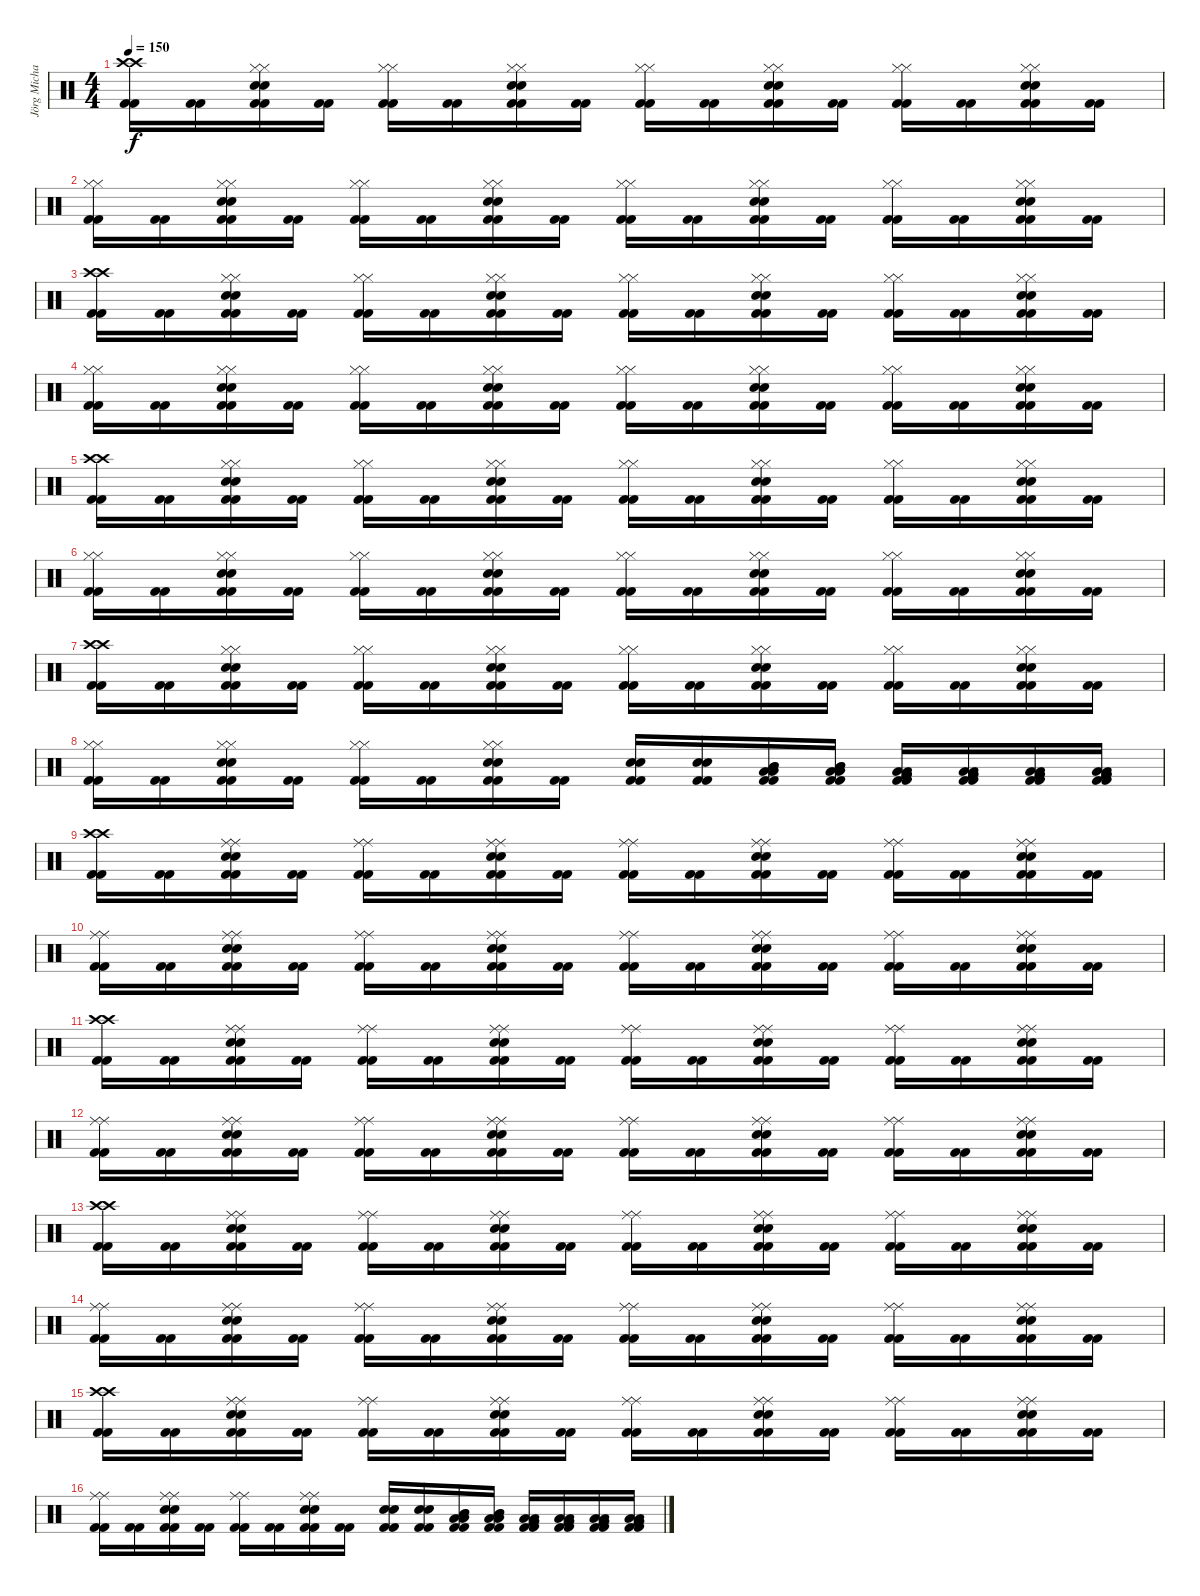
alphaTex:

\track ("Jörg Michael" "Jörg Micha") {instrument percussion}
\staff {score}
\articulation defaults
\ts (4 4)
\tempo 150
\clef neutral
\ks c
("Kick (hit) 2" "Crash high (hit)" "Kick (hit) 2" "Crash high (hit)").16{dy f} ("Kick (hit) 2" "Kick (hit) 2").16 ("Kick (hit) 2" "Snare (hit) 2" "Hi-Hat (closed)" "Kick (hit) 2" "Snare (hit) 2" "Hi-Hat (closed)").16 ("Kick (hit) 2" "Kick (hit) 2").16 ("Kick (hit) 2" "Hi-Hat (closed)" "Kick (hit) 2" "Hi-Hat (closed)").16 ("Kick (hit) 2" "Kick (hit) 2").16 ("Kick (hit) 2" "Snare (hit) 2" "Hi-Hat (closed)" "Kick (hit) 2" "Snare (hit) 2" "Hi-Hat (closed)").16 ("Kick (hit) 2" "Kick (hit) 2").16 ("Kick (hit) 2" "Hi-Hat (closed)" "Kick (hit) 2" "Hi-Hat (closed)").16 ("Kick (hit) 2" "Kick (hit) 2").16 ("Kick (hit) 2" "Snare (hit) 2" "Hi-Hat (closed)" "Kick (hit) 2" "Snare (hit) 2" "Hi-Hat (closed)").16 ("Kick (hit) 2" "Kick (hit) 2").16 ("Kick (hit) 2" "Hi-Hat (closed)" "Kick (hit) 2" "Hi-Hat (closed)").16 ("Kick (hit) 2" "Kick (hit) 2").16 ("Kick (hit) 2" "Snare (hit) 2" "Hi-Hat (closed)" "Kick (hit) 2" "Snare (hit) 2" "Hi-Hat (closed)").16 ("Kick (hit) 2" "Kick (hit) 2").16 |
("Kick (hit) 2" "Hi-Hat (closed)" "Kick (hit) 2" "Hi-Hat (closed)").16 ("Kick (hit) 2" "Kick (hit) 2").16 ("Kick (hit) 2" "Hi-Hat (closed)" "Snare (hit) 2" "Kick (hit) 2" "Hi-Hat (closed)" "Snare (hit) 2").16 ("Kick (hit) 2" "Kick (hit) 2").16 ("Kick (hit) 2" "Hi-Hat (closed)" "Kick (hit) 2" "Hi-Hat (closed)").16 ("Kick (hit) 2" "Kick (hit) 2").16 ("Kick (hit) 2" "Snare (hit) 2" "Hi-Hat (closed)" "Kick (hit) 2" "Snare (hit) 2" "Hi-Hat (closed)").16 ("Kick (hit) 2" "Kick (hit) 2").16 ("Kick (hit) 2" "Hi-Hat (closed)" "Kick (hit) 2" "Hi-Hat (closed)").16 ("Kick (hit) 2" "Kick (hit) 2").16 ("Kick (hit) 2" "Snare (hit) 2" "Hi-Hat (closed)" "Kick (hit) 2" "Snare (hit) 2" "Hi-Hat (closed)").16 ("Kick (hit) 2" "Kick (hit) 2").16 ("Kick (hit) 2" "Hi-Hat (closed)" "Kick (hit) 2" "Hi-Hat (closed)").16 ("Kick (hit) 2" "Kick (hit) 2").16 ("Kick (hit) 2" "Snare (hit) 2" "Hi-Hat (closed)" "Kick (hit) 2" "Snare (hit) 2" "Hi-Hat (closed)").16 ("Kick (hit) 2" "Kick (hit) 2").16 |
("Kick (hit) 2" "Crash high (hit)" "Kick (hit) 2" "Crash high (hit)").16 ("Kick (hit) 2" "Kick (hit) 2").16 ("Kick (hit) 2" "Snare (hit) 2" "Hi-Hat (closed)" "Kick (hit) 2" "Snare (hit) 2" "Hi-Hat (closed)").16 ("Kick (hit) 2" "Kick (hit) 2").16 ("Kick (hit) 2" "Hi-Hat (closed)" "Kick (hit) 2" "Hi-Hat (closed)").16 ("Kick (hit) 2" "Kick (hit) 2").16 ("Kick (hit) 2" "Hi-Hat (closed)" "Snare (hit) 2" "Kick (hit) 2" "Hi-Hat (closed)" "Snare (hit) 2").16 ("Kick (hit) 2" "Kick (hit) 2").16 ("Kick (hit) 2" "Hi-Hat (closed)" "Kick (hit) 2" "Hi-Hat (closed)").16 ("Kick (hit) 2" "Kick (hit) 2").16 ("Kick (hit) 2" "Hi-Hat (closed)" "Snare (hit) 2" "Kick (hit) 2" "Hi-Hat (closed)" "Snare (hit) 2").16 ("Kick (hit) 2" "Kick (hit) 2").16 ("Kick (hit) 2" "Hi-Hat (closed)" "Kick (hit) 2" "Hi-Hat (closed)").16 ("Kick (hit) 2" "Kick (hit) 2").16 ("Kick (hit) 2" "Hi-Hat (closed)" "Snare (hit) 2" "Kick (hit) 2" "Hi-Hat (closed)" "Snare (hit) 2").16 ("Kick (hit) 2" "Kick (hit) 2").16 |
("Kick (hit) 2" "Hi-Hat (closed)" "Kick (hit) 2" "Hi-Hat (closed)").16 ("Kick (hit) 2" "Kick (hit) 2").16 ("Kick (hit) 2" "Snare (hit) 2" "Hi-Hat (closed)" "Kick (hit) 2" "Snare (hit) 2" "Hi-Hat (closed)").16 ("Kick (hit) 2" "Kick (hit) 2").16 ("Kick (hit) 2" "Hi-Hat (closed)" "Kick (hit) 2" "Hi-Hat (closed)").16 ("Kick (hit) 2" "Kick (hit) 2").16 ("Kick (hit) 2" "Hi-Hat (closed)" "Snare (hit) 2" "Kick (hit) 2" "Hi-Hat (closed)" "Snare (hit) 2").16 ("Kick (hit) 2" "Kick (hit) 2").16 ("Kick (hit) 2" "Hi-Hat (closed)" "Kick (hit) 2" "Hi-Hat (closed)").16 ("Kick (hit) 2" "Kick (hit) 2").16 ("Kick (hit) 2" "Snare (hit) 2" "Hi-Hat (closed)" "Kick (hit) 2" "Snare (hit) 2" "Hi-Hat (closed)").16 ("Kick (hit) 2" "Kick (hit) 2").16 ("Kick (hit) 2" "Hi-Hat (closed)" "Kick (hit) 2" "Hi-Hat (closed)").16 ("Kick (hit) 2" "Kick (hit) 2").16 ("Kick (hit) 2" "Snare (hit) 2" "Hi-Hat (closed)" "Kick (hit) 2" "Snare (hit) 2" "Hi-Hat (closed)").16 ("Kick (hit) 2" "Kick (hit) 2").16 |
("Kick (hit) 2" "Crash high (hit)" "Kick (hit) 2" "Crash high (hit)").16 ("Kick (hit) 2" "Kick (hit) 2").16 ("Kick (hit) 2" "Hi-Hat (closed)" "Snare (hit) 2" "Kick (hit) 2" "Hi-Hat (closed)" "Snare (hit) 2").16 ("Kick (hit) 2" "Kick (hit) 2").16 ("Kick (hit) 2" "Hi-Hat (closed)" "Kick (hit) 2" "Hi-Hat (closed)").16 ("Kick (hit) 2" "Kick (hit) 2").16 ("Kick (hit) 2" "Hi-Hat (closed)" "Snare (hit) 2" "Kick (hit) 2" "Hi-Hat (closed)" "Snare (hit) 2").16 ("Kick (hit) 2" "Kick (hit) 2").16 ("Kick (hit) 2" "Hi-Hat (closed)" "Kick (hit) 2" "Hi-Hat (closed)").16 ("Kick (hit) 2" "Kick (hit) 2").16 ("Kick (hit) 2" "Snare (hit) 2" "Hi-Hat (closed)" "Kick (hit) 2" "Snare (hit) 2" "Hi-Hat (closed)").16 ("Kick (hit) 2" "Kick (hit) 2").16 ("Kick (hit) 2" "Hi-Hat (closed)" "Kick (hit) 2" "Hi-Hat (closed)").16 ("Kick (hit) 2" "Kick (hit) 2").16 ("Kick (hit) 2" "Snare (hit) 2" "Hi-Hat (closed)" "Kick (hit) 2" "Snare (hit) 2" "Hi-Hat (closed)").16 ("Kick (hit) 2" "Kick (hit) 2").16 |
("Kick (hit) 2" "Hi-Hat (closed)" "Kick (hit) 2" "Hi-Hat (closed)").16 ("Kick (hit) 2" "Kick (hit) 2").16 ("Kick (hit) 2" "Hi-Hat (closed)" "Snare (hit) 2" "Kick (hit) 2" "Hi-Hat (closed)" "Snare (hit) 2").16 ("Kick (hit) 2" "Kick (hit) 2").16 ("Kick (hit) 2" "Hi-Hat (closed)" "Kick (hit) 2" "Hi-Hat (closed)").16 ("Kick (hit) 2" "Kick (hit) 2").16 ("Kick (hit) 2" "Hi-Hat (closed)" "Snare (hit) 2" "Kick (hit) 2" "Hi-Hat (closed)" "Snare (hit) 2").16 ("Kick (hit) 2" "Kick (hit) 2").16 ("Kick (hit) 2" "Hi-Hat (closed)" "Kick (hit) 2" "Hi-Hat (closed)").16 ("Kick (hit) 2" "Kick (hit) 2").16 ("Kick (hit) 2" "Snare (hit) 2" "Hi-Hat (closed)" "Kick (hit) 2" "Snare (hit) 2" "Hi-Hat (closed)").16 ("Kick (hit) 2" "Kick (hit) 2").16 ("Kick (hit) 2" "Hi-Hat (closed)" "Kick (hit) 2" "Hi-Hat (closed)").16 ("Kick (hit) 2" "Kick (hit) 2").16 ("Kick (hit) 2" "Snare (hit) 2" "Hi-Hat (closed)" "Kick (hit) 2" "Snare (hit) 2" "Hi-Hat (closed)").16 ("Kick (hit) 2" "Kick (hit) 2").16 |
("Kick (hit) 2" "Crash high (hit)" "Kick (hit) 2" "Crash high (hit)").16 ("Kick (hit) 2" "Kick (hit) 2").16 ("Kick (hit) 2" "Snare (hit) 2" "Hi-Hat (closed)" "Kick (hit) 2" "Snare (hit) 2" "Hi-Hat (closed)").16 ("Kick (hit) 2" "Kick (hit) 2").16 ("Kick (hit) 2" "Hi-Hat (closed)" "Kick (hit) 2" "Hi-Hat (closed)").16 ("Kick (hit) 2" "Kick (hit) 2").16 ("Kick (hit) 2" "Hi-Hat (closed)" "Snare (hit) 2" "Kick (hit) 2" "Hi-Hat (closed)" "Snare (hit) 2").16 ("Kick (hit) 2" "Kick (hit) 2").16 ("Kick (hit) 2" "Hi-Hat (closed)" "Kick (hit) 2" "Hi-Hat (closed)").16 ("Kick (hit) 2" "Kick (hit) 2").16 ("Kick (hit) 2" "Hi-Hat (closed)" "Snare (hit) 2" "Kick (hit) 2" "Hi-Hat (closed)" "Snare (hit) 2").16 ("Kick (hit) 2" "Kick (hit) 2").16 ("Kick (hit) 2" "Hi-Hat (closed)" "Kick (hit) 2" "Hi-Hat (closed)").16 ("Kick (hit) 2" "Kick (hit) 2").16 ("Kick (hit) 2" "Snare (hit) 2" "Hi-Hat (closed)" "Kick (hit) 2" "Snare (hit) 2" "Hi-Hat (closed)").16 ("Kick (hit) 2" "Kick (hit) 2").16 |
("Kick (hit) 2" "Hi-Hat (closed)" "Kick (hit) 2" "Hi-Hat (closed)").16 ("Kick (hit) 2" "Kick (hit) 2").16 ("Kick (hit) 2" "Snare (hit) 2" "Hi-Hat (closed)" "Kick (hit) 2" "Snare (hit) 2" "Hi-Hat (closed)").16 ("Kick (hit) 2" "Kick (hit) 2").16 ("Kick (hit) 2" "Hi-Hat (closed)" "Kick (hit) 2" "Hi-Hat (closed)").16 ("Kick (hit) 2" "Kick (hit) 2").16 ("Kick (hit) 2" "Snare (hit) 2" "Hi-Hat (closed)" "Kick (hit) 2" "Snare (hit) 2" "Hi-Hat (closed)").16 ("Kick (hit) 2" "Kick (hit) 2").16 ("Kick (hit) 2" "Snare (hit) 2" "Kick (hit) 2" "Snare (hit) 2").16 ("Kick (hit) 2" "Snare (hit) 2" "Kick (hit) 2" "Snare (hit) 2").16 ("Kick (hit) 2" "Mid Tom (hit)" "Low Tom (hit)" "Kick (hit) 2" "Mid Tom (hit)" "Low Tom (hit)").16 ("Kick (hit) 2" "Low Tom (hit)" "Mid Tom (hit)" "Kick (hit) 2" "Low Tom (hit)" "Mid Tom (hit)").16 ("Kick (hit) 2" "Very Low Tom (hit)" "Low Tom (hit)" "Kick (hit) 2" "Very Low Tom (hit)" "Low Tom (hit)").16 ("Kick (hit) 2" "Very Low Tom (hit)" "Low Tom (hit)" "Kick (hit) 2" "Very Low Tom (hit)" "Low Tom (hit)").16 ("Kick (hit) 2" "Low Floor Tom (hit)" "Very Low Tom (hit)" "Kick (hit) 2" "Low Floor Tom (hit)" "Very Low Tom (hit)").16 ("Kick (hit) 2" "Very Low Tom (hit)" "Low Floor Tom (hit)" "Kick (hit) 2" "Very Low Tom (hit)" "Low Floor Tom (hit)").16 |
("Kick (hit) 2" "Crash high (hit)" "Kick (hit) 2" "Crash high (hit)").16 ("Kick (hit) 2" "Kick (hit) 2").16 ("Kick (hit) 2" "Snare (hit) 2" "Ride (middle)" "Kick (hit) 2" "Snare (hit) 2" "Ride (middle)").16 ("Kick (hit) 2" "Kick (hit) 2").16 ("Kick (hit) 2" "Ride (middle)" "Kick (hit) 2" "Ride (middle)").16 ("Kick (hit) 2" "Kick (hit) 2").16 ("Kick (hit) 2" "Snare (hit) 2" "Ride (middle)" "Kick (hit) 2" "Snare (hit) 2" "Ride (middle)").16 ("Kick (hit) 2" "Kick (hit) 2").16 ("Kick (hit) 2" "Ride (middle)" "Kick (hit) 2" "Ride (middle)").16 ("Kick (hit) 2" "Kick (hit) 2").16 ("Kick (hit) 2" "Snare (hit) 2" "Ride (middle)" "Kick (hit) 2" "Snare (hit) 2" "Ride (middle)").16 ("Kick (hit) 2" "Kick (hit) 2").16 ("Kick (hit) 2" "Ride (middle)" "Kick (hit) 2" "Ride (middle)").16 ("Kick (hit) 2" "Kick (hit) 2").16 ("Kick (hit) 2" "Snare (hit) 2" "Ride (middle)" "Kick (hit) 2" "Snare (hit) 2" "Ride (middle)").16 ("Kick (hit) 2" "Kick (hit) 2").16 |
("Kick (hit) 2" "Ride (middle)" "Kick (hit) 2" "Ride (middle)").16 ("Kick (hit) 2" "Kick (hit) 2").16 ("Kick (hit) 2" "Ride (middle)" "Snare (hit) 2" "Kick (hit) 2" "Ride (middle)" "Snare (hit) 2").16 ("Kick (hit) 2" "Kick (hit) 2").16 ("Kick (hit) 2" "Ride (middle)" "Kick (hit) 2" "Ride (middle)").16 ("Kick (hit) 2" "Kick (hit) 2").16 ("Kick (hit) 2" "Snare (hit) 2" "Ride (middle)" "Kick (hit) 2" "Snare (hit) 2" "Ride (middle)").16 ("Kick (hit) 2" "Kick (hit) 2").16 ("Kick (hit) 2" "Ride (middle)" "Kick (hit) 2" "Ride (middle)").16 ("Kick (hit) 2" "Kick (hit) 2").16 ("Kick (hit) 2" "Snare (hit) 2" "Ride (middle)" "Kick (hit) 2" "Snare (hit) 2" "Ride (middle)").16 ("Kick (hit) 2" "Kick (hit) 2").16 ("Kick (hit) 2" "Ride (middle)" "Kick (hit) 2" "Ride (middle)").16 ("Kick (hit) 2" "Kick (hit) 2").16 ("Kick (hit) 2" "Snare (hit) 2" "Ride (middle)" "Kick (hit) 2" "Snare (hit) 2" "Ride (middle)").16 ("Kick (hit) 2" "Kick (hit) 2").16 |
("Kick (hit) 2" "Crash high (hit)" "Kick (hit) 2" "Crash high (hit)").16 ("Kick (hit) 2" "Kick (hit) 2").16 ("Kick (hit) 2" "Snare (hit) 2" "Ride (middle)" "Kick (hit) 2" "Snare (hit) 2" "Ride (middle)").16 ("Kick (hit) 2" "Kick (hit) 2").16 ("Kick (hit) 2" "Ride (middle)" "Kick (hit) 2" "Ride (middle)").16 ("Kick (hit) 2" "Kick (hit) 2").16 ("Kick (hit) 2" "Ride (middle)" "Snare (hit) 2" "Kick (hit) 2" "Ride (middle)" "Snare (hit) 2").16 ("Kick (hit) 2" "Kick (hit) 2").16 ("Kick (hit) 2" "Ride (middle)" "Kick (hit) 2" "Ride (middle)").16 ("Kick (hit) 2" "Kick (hit) 2").16 ("Kick (hit) 2" "Ride (middle)" "Snare (hit) 2" "Kick (hit) 2" "Ride (middle)" "Snare (hit) 2").16 ("Kick (hit) 2" "Kick (hit) 2").16 ("Kick (hit) 2" "Ride (middle)" "Kick (hit) 2" "Ride (middle)").16 ("Kick (hit) 2" "Kick (hit) 2").16 ("Kick (hit) 2" "Ride (middle)" "Snare (hit) 2" "Kick (hit) 2" "Ride (middle)" "Snare (hit) 2").16 ("Kick (hit) 2" "Kick (hit) 2").16 |
("Kick (hit) 2" "Ride (middle)" "Kick (hit) 2" "Ride (middle)").16 ("Kick (hit) 2" "Kick (hit) 2").16 ("Kick (hit) 2" "Snare (hit) 2" "Ride (middle)" "Kick (hit) 2" "Snare (hit) 2" "Ride (middle)").16 ("Kick (hit) 2" "Kick (hit) 2").16 ("Kick (hit) 2" "Ride (middle)" "Kick (hit) 2" "Ride (middle)").16 ("Kick (hit) 2" "Kick (hit) 2").16 ("Kick (hit) 2" "Ride (middle)" "Snare (hit) 2" "Kick (hit) 2" "Ride (middle)" "Snare (hit) 2").16 ("Kick (hit) 2" "Kick (hit) 2").16 ("Kick (hit) 2" "Ride (middle)" "Kick (hit) 2" "Ride (middle)").16 ("Kick (hit) 2" "Kick (hit) 2").16 ("Kick (hit) 2" "Snare (hit) 2" "Ride (middle)" "Kick (hit) 2" "Snare (hit) 2" "Ride (middle)").16 ("Kick (hit) 2" "Kick (hit) 2").16 ("Kick (hit) 2" "Ride (middle)" "Kick (hit) 2" "Ride (middle)").16 ("Kick (hit) 2" "Kick (hit) 2").16 ("Kick (hit) 2" "Snare (hit) 2" "Ride (middle)" "Kick (hit) 2" "Snare (hit) 2" "Ride (middle)").16 ("Kick (hit) 2" "Kick (hit) 2").16 |
("Kick (hit) 2" "Crash high (hit)" "Kick (hit) 2" "Crash high (hit)").16 ("Kick (hit) 2" "Kick (hit) 2").16 ("Kick (hit) 2" "Ride (middle)" "Snare (hit) 2" "Kick (hit) 2" "Ride (middle)" "Snare (hit) 2").16 ("Kick (hit) 2" "Kick (hit) 2").16 ("Kick (hit) 2" "Ride (middle)" "Kick (hit) 2" "Ride (middle)").16 ("Kick (hit) 2" "Kick (hit) 2").16 ("Kick (hit) 2" "Ride (middle)" "Snare (hit) 2" "Kick (hit) 2" "Ride (middle)" "Snare (hit) 2").16 ("Kick (hit) 2" "Kick (hit) 2").16 ("Kick (hit) 2" "Ride (middle)" "Kick (hit) 2" "Ride (middle)").16 ("Kick (hit) 2" "Kick (hit) 2").16 ("Kick (hit) 2" "Snare (hit) 2" "Ride (middle)" "Kick (hit) 2" "Snare (hit) 2" "Ride (middle)").16 ("Kick (hit) 2" "Kick (hit) 2").16 ("Kick (hit) 2" "Ride (middle)" "Kick (hit) 2" "Ride (middle)").16 ("Kick (hit) 2" "Kick (hit) 2").16 ("Kick (hit) 2" "Snare (hit) 2" "Ride (middle)" "Kick (hit) 2" "Snare (hit) 2" "Ride (middle)").16 ("Kick (hit) 2" "Kick (hit) 2").16 |
("Kick (hit) 2" "Ride (middle)" "Kick (hit) 2" "Ride (middle)").16 ("Kick (hit) 2" "Kick (hit) 2").16 ("Kick (hit) 2" "Ride (middle)" "Snare (hit) 2" "Kick (hit) 2" "Ride (middle)" "Snare (hit) 2").16 ("Kick (hit) 2" "Kick (hit) 2").16 ("Kick (hit) 2" "Ride (middle)" "Kick (hit) 2" "Ride (middle)").16 ("Kick (hit) 2" "Kick (hit) 2").16 ("Kick (hit) 2" "Ride (middle)" "Snare (hit) 2" "Kick (hit) 2" "Ride (middle)" "Snare (hit) 2").16 ("Kick (hit) 2" "Kick (hit) 2").16 ("Kick (hit) 2" "Ride (middle)" "Kick (hit) 2" "Ride (middle)").16 ("Kick (hit) 2" "Kick (hit) 2").16 ("Kick (hit) 2" "Snare (hit) 2" "Ride (middle)" "Kick (hit) 2" "Snare (hit) 2" "Ride (middle)").16 ("Kick (hit) 2" "Kick (hit) 2").16 ("Kick (hit) 2" "Ride (middle)" "Kick (hit) 2" "Ride (middle)").16 ("Kick (hit) 2" "Kick (hit) 2").16 ("Kick (hit) 2" "Snare (hit) 2" "Ride (middle)" "Kick (hit) 2" "Snare (hit) 2" "Ride (middle)").16 ("Kick (hit) 2" "Kick (hit) 2").16 |
("Kick (hit) 2" "Crash high (hit)" "Kick (hit) 2" "Crash high (hit)").16 ("Kick (hit) 2" "Kick (hit) 2").16 ("Kick (hit) 2" "Snare (hit) 2" "Ride (middle)" "Kick (hit) 2" "Snare (hit) 2" "Ride (middle)").16 ("Kick (hit) 2" "Kick (hit) 2").16 ("Kick (hit) 2" "Ride (middle)" "Kick (hit) 2" "Ride (middle)").16 ("Kick (hit) 2" "Kick (hit) 2").16 ("Kick (hit) 2" "Ride (middle)" "Snare (hit) 2" "Kick (hit) 2" "Ride (middle)" "Snare (hit) 2").16 ("Kick (hit) 2" "Kick (hit) 2").16 ("Kick (hit) 2" "Ride (middle)" "Kick (hit) 2" "Ride (middle)").16 ("Kick (hit) 2" "Kick (hit) 2").16 ("Kick (hit) 2" "Ride (middle)" "Snare (hit) 2" "Kick (hit) 2" "Ride (middle)" "Snare (hit) 2").16 ("Kick (hit) 2" "Kick (hit) 2").16 ("Kick (hit) 2" "Ride (middle)" "Kick (hit) 2" "Ride (middle)").16 ("Kick (hit) 2" "Kick (hit) 2").16 ("Kick (hit) 2" "Snare (hit) 2" "Ride (middle)" "Kick (hit) 2" "Snare (hit) 2" "Ride (middle)").16 ("Kick (hit) 2" "Kick (hit) 2").16 |
("Kick (hit) 2" "Ride (middle)" "Kick (hit) 2" "Ride (middle)").16 ("Kick (hit) 2" "Kick (hit) 2").16 ("Kick (hit) 2" "Snare (hit) 2" "Ride (middle)" "Kick (hit) 2" "Snare (hit) 2" "Ride (middle)").16 ("Kick (hit) 2" "Kick (hit) 2").16 ("Kick (hit) 2" "Ride (middle)" "Kick (hit) 2" "Ride (middle)").16 ("Kick (hit) 2" "Kick (hit) 2").16 ("Kick (hit) 2" "Snare (hit) 2" "Ride (middle)" "Kick (hit) 2" "Snare (hit) 2" "Ride (middle)").16 ("Kick (hit) 2" "Kick (hit) 2").16 ("Kick (hit) 2" "Snare (hit) 2" "Kick (hit) 2" "Snare (hit) 2").16 ("Kick (hit) 2" "Snare (hit) 2" "Kick (hit) 2" "Snare (hit) 2").16 ("Kick (hit) 2" "Mid Tom (hit)" "Low Tom (hit)" "Kick (hit) 2" "Mid Tom (hit)" "Low Tom (hit)").16 ("Kick (hit) 2" "Low Tom (hit)" "Mid Tom (hit)" "Kick (hit) 2" "Low Tom (hit)" "Mid Tom (hit)").16 ("Kick (hit) 2" "Very Low Tom (hit)" "Low Tom (hit)" "Kick (hit) 2" "Very Low Tom (hit)" "Low Tom (hit)").16 ("Kick (hit) 2" "Very Low Tom (hit)" "Low Tom (hit)" "Kick (hit) 2" "Very Low Tom (hit)" "Low Tom (hit)").16 ("Kick (hit) 2" "Low Floor Tom (hit)" "Very Low Tom (hit)" "Kick (hit) 2" "Low Floor Tom (hit)" "Very Low Tom (hit)").16 ("Kick (hit) 2" "Very Low Tom (hit)" "Low Floor Tom (hit)" "Kick (hit) 2" "Very Low Tom (hit)" "Low Floor Tom (hit)").16
